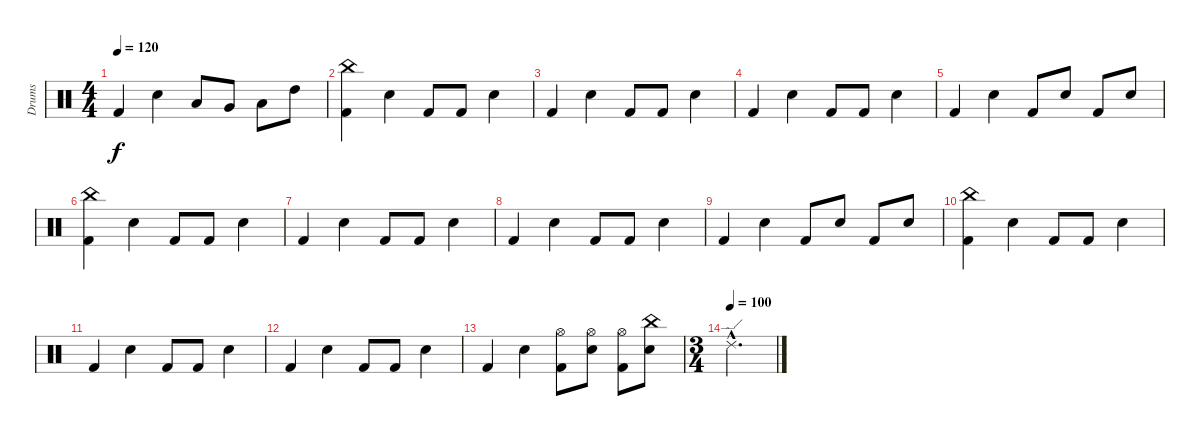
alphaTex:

\track ("Drums" "Drums") {instrument percussion}
\staff {score}
\articulation defaults
\ts (4 4)
\tempo 120
\clef neutral
\ks c "Kick (hit) 2".4{dy f} "Snare (hit) 2".4 "Low Tom (hit)".8 "Very Low Tom (hit)".8 "Low Floor Tom (hit)".8 "High Tom (hit)".8
|
("China (hit)" "Kick (hit) 2").4 "Snare (hit) 2".4 "Kick (hit) 2".8 "Kick (hit) 2".8 "Snare (hit) 2".4 |
"Kick (hit) 2".4 "Snare (hit) 2".4 "Kick (hit) 2".8 "Kick (hit) 2".8 "Snare (hit) 2".4 |
"Kick (hit) 2".4 "Snare (hit) 2".4 "Kick (hit) 2".8 "Kick (hit) 2".8 "Snare (hit) 2".4 |
"Kick (hit) 2".4 "Snare (hit) 2".4 "Kick (hit) 2".8 "Snare (hit) 2".8 "Kick (hit) 2".8 "Snare (hit) 2".8 |
("China (hit)" "Kick (hit) 2").4 "Snare (hit) 2".4 "Kick (hit) 2".8 "Kick (hit) 2".8 "Snare (hit) 2".4 |
"Kick (hit) 2".4 "Snare (hit) 2".4 "Kick (hit) 2".8 "Kick (hit) 2".8 "Snare (hit) 2".4 |
"Kick (hit) 2".4 "Snare (hit) 2".4 "Kick (hit) 2".8 "Kick (hit) 2".8 "Snare (hit) 2".4 |
"Kick (hit) 2".4 "Snare (hit) 2".4 "Kick (hit) 2".8 "Snare (hit) 2".8 "Kick (hit) 2".8 "Snare (hit) 2".8 |
("China (hit)" "Kick (hit) 2").4 "Snare (hit) 2".4 "Kick (hit) 2".8 "Kick (hit) 2".8 "Snare (hit) 2".4 |
"Kick (hit) 2".4 "Snare (hit) 2".4 "Kick (hit) 2".8 "Kick (hit) 2".8 "Snare (hit) 2".4 |
"Kick (hit) 2".4 "Snare (hit) 2".4 "Kick (hit) 2".8 "Kick (hit) 2".8 "Snare (hit) 2".4 |
"Kick (hit) 2".4 "Snare (hit) 2".4 ("Hi-Hat (open)" "Kick (hit) 2").8 ("Hi-Hat (open)" "Snare (hit) 2").8 ("Hi-Hat (open)" "Kick (hit) 2").8 ("China (hit)" "Snare (hit) 2").8 |
\ts (3 4)
\tempo (100)
"Ride (edge) 2"{hac}.2{d}
